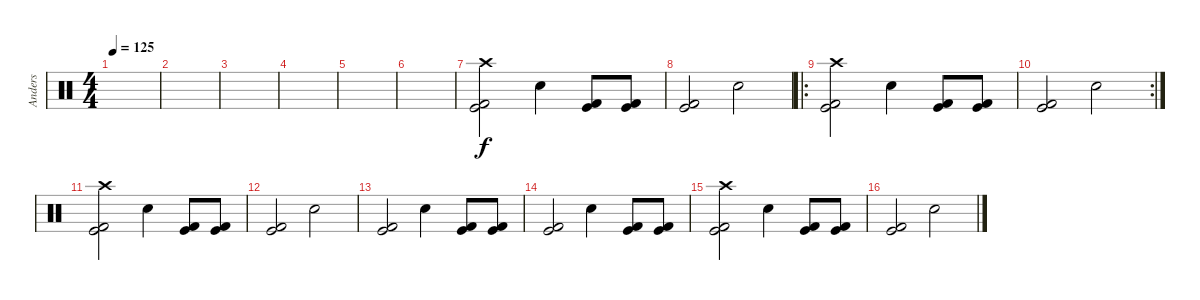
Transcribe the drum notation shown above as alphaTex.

\track ("Anders" "Anders") {instrument percussion}
\staff {score}
\articulation defaults
\ts (4 4)
\tempo 125
\clef neutral
\ks c
|
|
|
|
|
|
("Crash high (hit)" "Kick (hit) 2" "Kick (hit)").2 "Electric Snare (hit)".4 ("Kick (hit) 2" "Kick (hit)").8 ("Kick (hit) 2" "Kick (hit)").8 |
("Kick (hit) 2" "Kick (hit)").2 "Electric Snare (hit)".2 |
\ro
("Crash high (hit)" "Kick (hit) 2" "Kick (hit)").2 "Electric Snare (hit)".4 ("Kick (hit) 2" "Kick (hit)").8 ("Kick (hit) 2" "Kick (hit)").8 |
\rc 2
("Kick (hit) 2" "Kick (hit)").2 "Electric Snare (hit)".2 |
("Crash high (hit)" "Kick (hit) 2" "Kick (hit)").2 "Electric Snare (hit)".4 ("Kick (hit) 2" "Kick (hit)").8 ("Kick (hit) 2" "Kick (hit)").8 |
("Kick (hit) 2" "Kick (hit)").2 "Electric Snare (hit)".2 |
("Kick (hit) 2" "Kick (hit)").2 "Electric Snare (hit)".4 ("Kick (hit) 2" "Kick (hit)").8 ("Kick (hit) 2" "Kick (hit)").8 |
("Kick (hit) 2" "Kick (hit)").2 "Electric Snare (hit)".4 ("Kick (hit) 2" "Kick (hit)").8 ("Kick (hit) 2" "Kick (hit)").8 |
("Crash high (hit)" "Kick (hit) 2" "Kick (hit)").2 "Electric Snare (hit)".4 ("Kick (hit) 2" "Kick (hit)").8 ("Kick (hit) 2" "Kick (hit)").8 |
("Kick (hit) 2" "Kick (hit)").2 "Electric Snare (hit)".2
